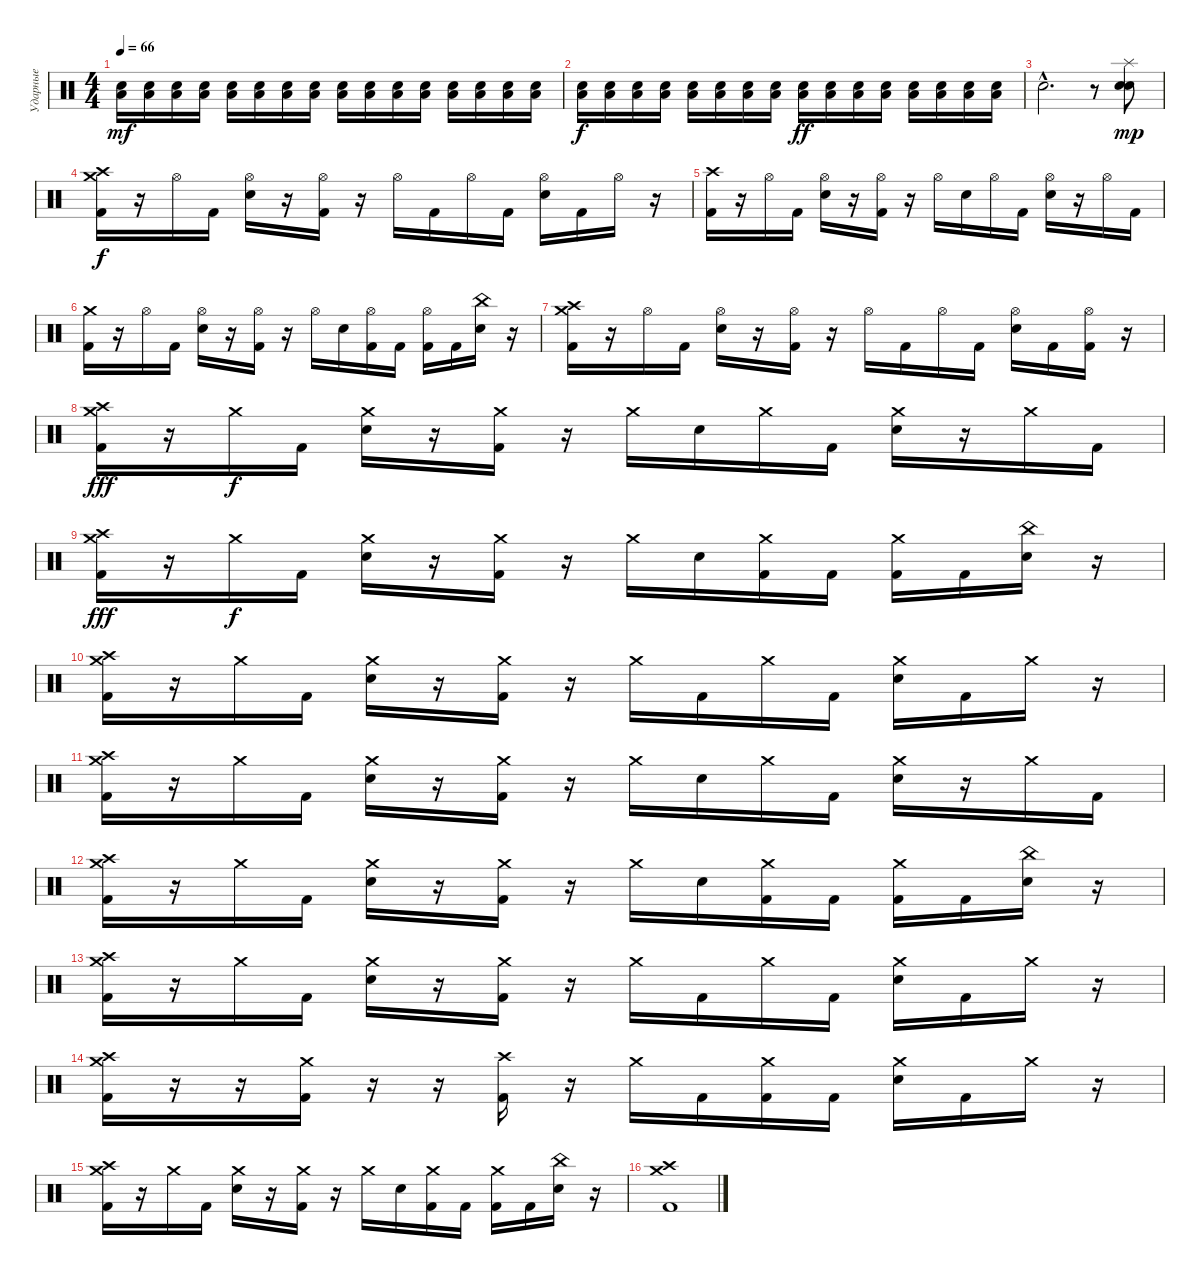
\track ("Ударные" "Ударные") {instrument percussion}
\staff {score}
\articulation defaults
\ts (4 4)
\tempo 66
\clef neutral
\ks c
("Electric Snare (hit)" "Low Tom (hit)").16{dy mf} ("Electric Snare (hit)" "Low Tom (hit)").16 ("Electric Snare (hit)" "Low Tom (hit)").16 ("Electric Snare (hit)" "Low Tom (hit)").16 ("Electric Snare (hit)" "Low Tom (hit)").16 ("Electric Snare (hit)" "Low Tom (hit)").16 ("Electric Snare (hit)" "Low Tom (hit)").16 ("Electric Snare (hit)" "Low Tom (hit)").16 ("Electric Snare (hit)" "Low Tom (hit)").16 ("Electric Snare (hit)" "Low Tom (hit)").16 ("Electric Snare (hit)" "Low Tom (hit)").16 ("Electric Snare (hit)" "Low Tom (hit)").16 ("Electric Snare (hit)" "Low Tom (hit)").16 ("Electric Snare (hit)" "Low Tom (hit)").16 ("Electric Snare (hit)" "Low Tom (hit)").16 ("Electric Snare (hit)" "Low Tom (hit)").16 |
("Electric Snare (hit)" "Low Tom (hit)").16{dy f} ("Electric Snare (hit)" "Low Tom (hit)").16 ("Electric Snare (hit)" "Low Tom (hit)").16 ("Electric Snare (hit)" "Low Tom (hit)").16 ("Electric Snare (hit)" "Low Tom (hit)").16 ("Electric Snare (hit)" "Low Tom (hit)").16 ("Electric Snare (hit)" "Low Tom (hit)").16 ("Electric Snare (hit)" "Low Tom (hit)").16 ("Electric Snare (hit)" "Low Tom (hit)").16{dy ff} ("Electric Snare (hit)" "Low Tom (hit)").16 ("Electric Snare (hit)" "Low Tom (hit)").16 ("Electric Snare (hit)" "Low Tom (hit)").16 ("Electric Snare (hit)" "Low Tom (hit)").16 ("Electric Snare (hit)" "Low Tom (hit)").16 ("Electric Snare (hit)" "Low Tom (hit)").16 ("Electric Snare (hit)" "Low Tom (hit)").16 |
"Electric Snare (hit)"{hac}.2{d} r.8 ("Splash (hit)" "Electric Snare (hit)" "Snare (hit) 2").8{dy mp} |
("Crash medium (hit)" "Crash high (hit)" "Kick (hit) 2").16{dy f} r.16 "Hi-Hat (open)".16 "Kick (hit) 2".16 ("Hi-Hat (open)" "Electric Snare (hit)").16 r.16 ("Hi-Hat (open)" "Kick (hit) 2").16 r.16 "Hi-Hat (open)".16 "Kick (hit) 2".16 "Hi-Hat (open)".16 "Kick (hit) 2".16 ("Hi-Hat (open)" "Electric Snare (hit)").16 "Kick (hit) 2".16 "Hi-Hat (open)".16 r.16 |
("Crash high (hit)" "Kick (hit) 2").16 r.16 "Hi-Hat (open)".16 "Kick (hit) 2".16 ("Hi-Hat (open)" "Electric Snare (hit)").16 r.16 ("Hi-Hat (open)" "Kick (hit) 2").16 r.16 "Hi-Hat (open)".16 "Electric Snare (hit)".16 "Hi-Hat (open)".16 "Kick (hit) 2".16 ("Hi-Hat (open)" "Electric Snare (hit)").16 r.16 "Hi-Hat (open)".16 "Kick (hit) 2".16 |
("Crash medium (hit)" "Kick (hit) 2").16 r.16 "Hi-Hat (open)".16 "Kick (hit) 2".16 ("Hi-Hat (open)" "Electric Snare (hit)").16 r.16 ("Hi-Hat (open)" "Kick (hit) 2").16 r.16 "Hi-Hat (open)".16 "Electric Snare (hit)".16 ("Hi-Hat (open)" "Kick (hit) 2").16 "Kick (hit) 2".16 ("Hi-Hat (open)" "Kick (hit) 2").16 "Kick (hit) 2".16 ("China (hit)" "Electric Snare (hit)").16 r.16 |
("Crash medium (hit)" "Crash high (hit)" "Kick (hit) 2").16 r.16 "Hi-Hat (open)".16 "Kick (hit) 2".16 ("Hi-Hat (open)" "Electric Snare (hit)").16 r.16 ("Hi-Hat (open)" "Kick (hit) 2").16 r.16 "Hi-Hat (open)".16 "Kick (hit) 2".16 "Hi-Hat (open)".16 "Kick (hit) 2".16 ("Hi-Hat (open)" "Electric Snare (hit)").16 "Kick (hit) 2".16 ("Hi-Hat (open)" "Kick (hit) 2").16 r.16 |
("Crash medium (hit)" "Crash high (hit)" "Kick (hit) 2").16{dy fff} r.16 "Crash medium (hit)".16{dy f} "Kick (hit) 2".16 ("Crash medium (hit)" "Electric Snare (hit)").16 r.16 ("Crash medium (hit)" "Kick (hit) 2").16 r.16 "Crash medium (hit)".16 "Electric Snare (hit)".16 "Crash medium (hit)".16 "Kick (hit) 2".16 ("Crash medium (hit)" "Electric Snare (hit)").16 r.16 "Crash medium (hit)".16 "Kick (hit) 2".16 |
("Crash medium (hit)" "Crash high (hit)" "Kick (hit) 2").16{dy fff} r.16 "Crash medium (hit)".16{dy f} "Kick (hit) 2".16 ("Crash medium (hit)" "Electric Snare (hit)").16 r.16 ("Crash medium (hit)" "Kick (hit) 2").16 r.16 "Crash medium (hit)".16 "Electric Snare (hit)".16 ("Crash medium (hit)" "Kick (hit) 2").16 "Kick (hit) 2".16 ("Crash medium (hit)" "Kick (hit) 2").16 "Kick (hit) 2".16 ("China (hit)" "Electric Snare (hit)").16 r.16 |
("Crash medium (hit)" "Crash high (hit)" "Kick (hit) 2").16 r.16 "Crash medium (hit)".16 "Kick (hit) 2".16 ("Crash medium (hit)" "Electric Snare (hit)").16 r.16 ("Crash medium (hit)" "Kick (hit) 2").16 r.16 "Crash medium (hit)".16 "Kick (hit) 2".16 "Crash medium (hit)".16 "Kick (hit) 2".16 ("Crash medium (hit)" "Electric Snare (hit)").16 "Kick (hit) 2".16 "Crash medium (hit)".16 r.16 |
("Crash medium (hit)" "Crash high (hit)" "Kick (hit) 2").16 r.16 "Crash medium (hit)".16 "Kick (hit) 2".16 ("Crash medium (hit)" "Electric Snare (hit)").16 r.16 ("Crash medium (hit)" "Kick (hit) 2").16 r.16 "Crash medium (hit)".16 "Electric Snare (hit)".16 "Crash medium (hit)".16 "Kick (hit) 2".16 ("Crash medium (hit)" "Electric Snare (hit)").16 r.16 "Crash medium (hit)".16 "Kick (hit) 2".16 |
("Crash medium (hit)" "Crash high (hit)" "Kick (hit) 2").16 r.16 "Crash medium (hit)".16 "Kick (hit) 2".16 ("Crash medium (hit)" "Electric Snare (hit)").16 r.16 ("Crash medium (hit)" "Kick (hit) 2").16 r.16 "Crash medium (hit)".16 "Electric Snare (hit)".16 ("Crash medium (hit)" "Kick (hit) 2").16 "Kick (hit) 2".16 ("Crash medium (hit)" "Kick (hit) 2").16 "Kick (hit) 2".16 ("China (hit)" "Electric Snare (hit)").16 r.16 |
("Crash medium (hit)" "Crash high (hit)" "Kick (hit) 2").16 r.16 "Crash medium (hit)".16 "Kick (hit) 2".16 ("Crash medium (hit)" "Electric Snare (hit)").16 r.16 ("Crash medium (hit)" "Kick (hit) 2").16 r.16 "Crash medium (hit)".16 "Kick (hit) 2".16 "Crash medium (hit)".16 "Kick (hit) 2".16 ("Crash medium (hit)" "Electric Snare (hit)").16 "Kick (hit) 2".16 "Crash medium (hit)".16 r.16 |
("Crash medium (hit)" "Crash high (hit)" "Kick (hit) 2").16 r.16 r.16 ("Crash medium (hit)" "Kick (hit) 2").16 r.16 r.16 ("Crash high (hit)" "Kick (hit) 2").16 r.16 "Crash medium (hit)".16 "Kick (hit) 2".16 ("Crash medium (hit)" "Kick (hit) 2").16 "Kick (hit) 2".16 ("Crash medium (hit)" "Electric Snare (hit)").16 "Kick (hit) 2".16 "Crash medium (hit)".16 r.16 |
("Crash medium (hit)" "Crash high (hit)" "Kick (hit) 2").16 r.16 "Crash medium (hit)".16 "Kick (hit) 2".16 ("Crash medium (hit)" "Electric Snare (hit)").16 r.16 ("Crash medium (hit)" "Kick (hit) 2").16 r.16 "Crash medium (hit)".16 "Electric Snare (hit)".16 ("Crash medium (hit)" "Kick (hit) 2").16 "Kick (hit) 2".16 ("Crash medium (hit)" "Kick (hit) 2").16 "Kick (hit) 2".16 ("China (hit)" "Electric Snare (hit)").16 r.16 |
("Crash medium (hit)" "Crash high (hit)" "Kick (hit) 2").1
